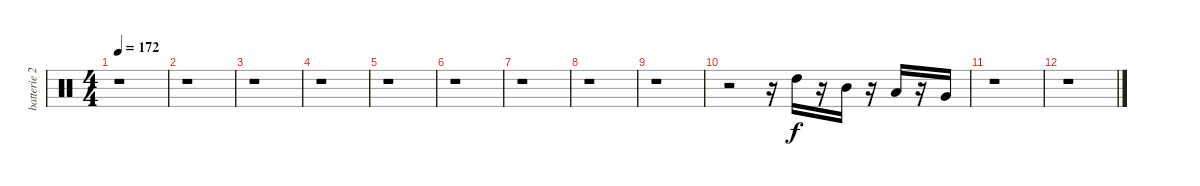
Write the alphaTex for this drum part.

\track ("batterie 2" "batterie 2") {instrument percussion}
\staff {score}
\articulation defaults
\ts (4 4)
\tempo 172
\clef neutral
\ks c
r.1{dy f} |
r.1 |
r.1 |
r.1 |
r.1 |
r.1 |
r.1 |
r.1 |
r.1 |
r.2 r.16 "High Tom (hit)".16 r.16 "Mid Tom (hit)".16 r.16 "Low Tom (hit)".16 r.16 "Very Low Tom (hit)".16 |
r.1 |
r.1
